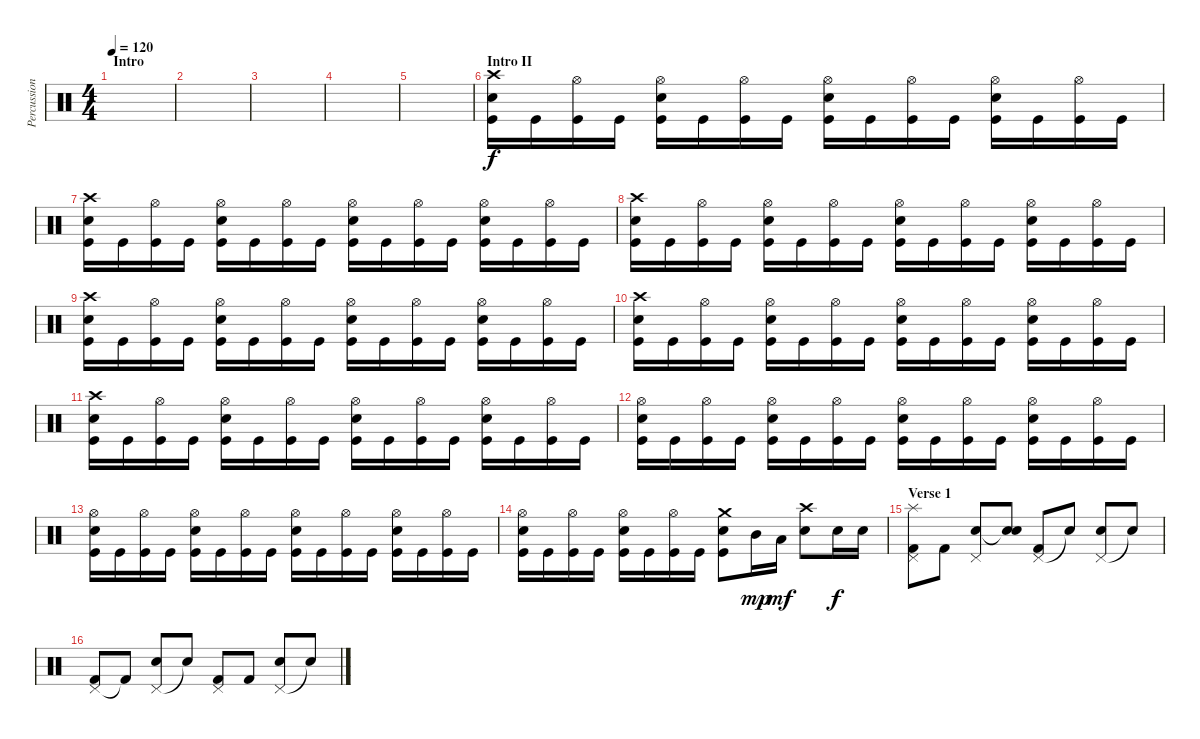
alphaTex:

\track ("Percussion" "Percussion") {instrument percussion}
\staff {score}
\articulation defaults
\ts (4 4)
\section ("" "Intro")
\tempo 120
\clef neutral
\ks c
|
|
|
|
|
\section ("" "Intro II")
("Kick (hit)" "Electric Snare (hit)" "Crash high (hit)").16 "Kick (hit)".16 ("Kick (hit)" "Hi-Hat (open)").16 "Kick (hit)".16 ("Kick (hit)" "Electric Snare (hit)" "Hi-Hat (open)").16 "Kick (hit)".16 ("Kick (hit)" "Hi-Hat (open)").16 "Kick (hit)".16 ("Kick (hit)" "Electric Snare (hit)" "Hi-Hat (open)").16 "Kick (hit)".16 ("Kick (hit)" "Hi-Hat (open)").16 "Kick (hit)".16 ("Kick (hit)" "Electric Snare (hit)" "Hi-Hat (open)").16 "Kick (hit)".16 ("Kick (hit)" "Hi-Hat (open)").16 "Kick (hit)".16 |
("Kick (hit)" "Electric Snare (hit)" "Crash high (hit)").16 "Kick (hit)".16 ("Kick (hit)" "Hi-Hat (open)").16 "Kick (hit)".16 ("Kick (hit)" "Electric Snare (hit)" "Hi-Hat (open)").16 "Kick (hit)".16 ("Kick (hit)" "Hi-Hat (open)").16 "Kick (hit)".16 ("Kick (hit)" "Electric Snare (hit)" "Hi-Hat (open)").16 "Kick (hit)".16 ("Kick (hit)" "Hi-Hat (open)").16 "Kick (hit)".16 ("Kick (hit)" "Electric Snare (hit)" "Hi-Hat (open)").16 "Kick (hit)".16 ("Kick (hit)" "Hi-Hat (open)").16 "Kick (hit)".16 |
("Kick (hit)" "Electric Snare (hit)" "Crash high (hit)").16 "Kick (hit)".16 ("Kick (hit)" "Hi-Hat (open)").16 "Kick (hit)".16 ("Kick (hit)" "Electric Snare (hit)" "Hi-Hat (open)").16 "Kick (hit)".16 ("Kick (hit)" "Hi-Hat (open)").16 "Kick (hit)".16 ("Kick (hit)" "Electric Snare (hit)" "Hi-Hat (open)").16 "Kick (hit)".16 ("Kick (hit)" "Hi-Hat (open)").16 "Kick (hit)".16 ("Kick (hit)" "Electric Snare (hit)" "Hi-Hat (open)").16 "Kick (hit)".16 ("Kick (hit)" "Hi-Hat (open)").16 "Kick (hit)".16 |
("Kick (hit)" "Electric Snare (hit)" "Crash high (hit)").16 "Kick (hit)".16 ("Kick (hit)" "Hi-Hat (open)").16 "Kick (hit)".16 ("Kick (hit)" "Electric Snare (hit)" "Hi-Hat (open)").16 "Kick (hit)".16 ("Kick (hit)" "Hi-Hat (open)").16 "Kick (hit)".16 ("Kick (hit)" "Electric Snare (hit)" "Hi-Hat (open)").16 "Kick (hit)".16 ("Kick (hit)" "Hi-Hat (open)").16 "Kick (hit)".16 ("Kick (hit)" "Electric Snare (hit)" "Hi-Hat (open)").16 "Kick (hit)".16 ("Kick (hit)" "Hi-Hat (open)").16 "Kick (hit)".16 |
("Kick (hit)" "Electric Snare (hit)" "Crash high (hit)").16 "Kick (hit)".16 ("Kick (hit)" "Hi-Hat (open)").16 "Kick (hit)".16 ("Kick (hit)" "Electric Snare (hit)" "Hi-Hat (open)").16 "Kick (hit)".16 ("Kick (hit)" "Hi-Hat (open)").16 "Kick (hit)".16 ("Kick (hit)" "Electric Snare (hit)" "Hi-Hat (open)").16 "Kick (hit)".16 ("Kick (hit)" "Hi-Hat (open)").16 "Kick (hit)".16 ("Kick (hit)" "Electric Snare (hit)" "Hi-Hat (open)").16 "Kick (hit)".16 ("Kick (hit)" "Hi-Hat (open)").16 "Kick (hit)".16 |
("Kick (hit)" "Electric Snare (hit)" "Crash high (hit)").16 "Kick (hit)".16 ("Kick (hit)" "Hi-Hat (open)").16 "Kick (hit)".16 ("Kick (hit)" "Electric Snare (hit)" "Hi-Hat (open)").16 "Kick (hit)".16 ("Kick (hit)" "Hi-Hat (open)").16 "Kick (hit)".16 ("Kick (hit)" "Electric Snare (hit)" "Hi-Hat (open)").16 "Kick (hit)".16 ("Kick (hit)" "Hi-Hat (open)").16 "Kick (hit)".16 ("Kick (hit)" "Electric Snare (hit)" "Hi-Hat (open)").16 "Kick (hit)".16 ("Kick (hit)" "Hi-Hat (open)").16 "Kick (hit)".16 |
("Kick (hit)" "Electric Snare (hit)" "Hi-Hat (open)").16 "Kick (hit)".16 ("Kick (hit)" "Hi-Hat (open)").16 "Kick (hit)".16 ("Kick (hit)" "Electric Snare (hit)" "Hi-Hat (open)").16 "Kick (hit)".16 ("Kick (hit)" "Hi-Hat (open)").16 "Kick (hit)".16 ("Kick (hit)" "Electric Snare (hit)" "Hi-Hat (open)").16 "Kick (hit)".16 ("Kick (hit)" "Hi-Hat (open)").16 "Kick (hit)".16 ("Kick (hit)" "Electric Snare (hit)" "Hi-Hat (open)").16 "Kick (hit)".16 ("Kick (hit)" "Hi-Hat (open)").16 "Kick (hit)".16 |
("Kick (hit)" "Electric Snare (hit)" "Hi-Hat (open)").16 "Kick (hit)".16 ("Kick (hit)" "Hi-Hat (open)").16 "Kick (hit)".16 ("Kick (hit)" "Electric Snare (hit)" "Hi-Hat (open)").16 "Kick (hit)".16 ("Kick (hit)" "Hi-Hat (open)").16 "Kick (hit)".16 ("Kick (hit)" "Electric Snare (hit)" "Hi-Hat (open)").16 "Kick (hit)".16 ("Kick (hit)" "Hi-Hat (open)").16 "Kick (hit)".16 ("Kick (hit)" "Electric Snare (hit)" "Hi-Hat (open)").16 "Kick (hit)".16 ("Kick (hit)" "Hi-Hat (open)").16 "Kick (hit)".16 |
("Kick (hit)" "Electric Snare (hit)" "Hi-Hat (open)").16 "Kick (hit)".16 ("Kick (hit)" "Hi-Hat (open)").16 "Kick (hit)".16 ("Kick (hit)" "Electric Snare (hit)" "Hi-Hat (open)").16 "Kick (hit)".16 ("Kick (hit)" "Hi-Hat (open)").16 "Kick (hit)".16 ("Kick (hit)" "Electric Snare (hit)" "Crash medium (hit)").8 "Mid Tom (hit)".16{dy mp} "Low Tom (hit)".16{dy mf} ("Electric Snare (hit)" "Crash high (hit)").8 "Electric Snare (hit)".16{dy f} "Electric Snare (hit)".16 |
\section ("" "Verse 1")
("Splash (hit)" "Pedal Hi-Hat (hit)" "Kick (hit) 2").8 "Kick (hit) 2".8 ("Pedal Hi-Hat (hit)" "Electric Snare (hit)").8 ("Snare (hit)" "Snare (hit)"{t}).8 ("Pedal Hi-Hat (hit)" "Kick (hit) 2").8 "Snare (hit)"{t}.8 ("Pedal Hi-Hat (hit)" "Electric Snare (hit)").8 "Snare (hit)"{t}.8 |
("Pedal Hi-Hat (hit)" "Kick (hit) 2").8 "Kick (hit) 2"{t}.8 ("Pedal Hi-Hat (hit)" "Electric Snare (hit)").8 "Snare (hit)"{t}.8 ("Pedal Hi-Hat (hit)" "Kick (hit) 2").8 "Kick (hit) 2".8 ("Pedal Hi-Hat (hit)" "Electric Snare (hit)").8 "Snare (hit)"{t}.8
